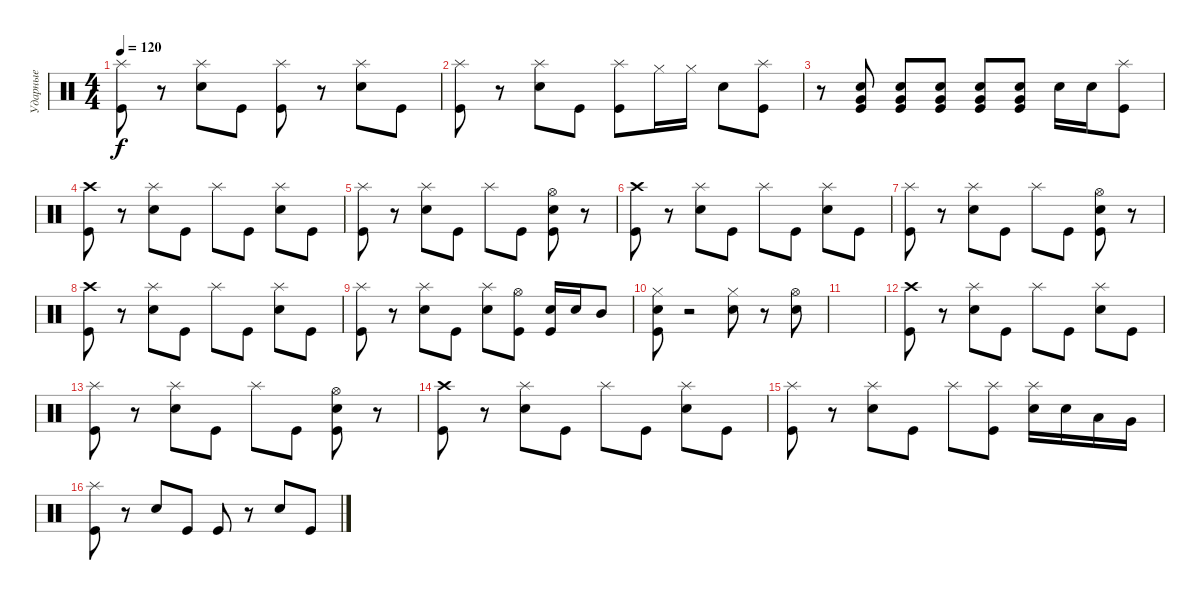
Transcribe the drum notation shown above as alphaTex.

\track ("Ударные" "Ударные") {instrument percussion}
\staff {score}
\articulation defaults
\ts (4 4)
\tempo 120
\clef neutral
\ks c
("Splash (hit)" "Kick (hit)").8{dy f} r.8 ("Splash (hit)" "Snare (hit) 2").8 "Kick (hit)".8 ("Splash (hit)" "Kick (hit)").8 r.8 ("Splash (hit)" "Snare (hit) 2").8 "Kick (hit)".8 |
("Splash (hit)" "Kick (hit)").8 r.8 ("Splash (hit)" "Snare (hit) 2").8 "Kick (hit)".8 ("Splash (hit)" "Kick (hit)").8 "Hi-Hat (closed)".16 "Hi-Hat (closed)".16 "Snare (hit) 2".8 ("Splash (hit)" "Kick (hit)").8 |
r.8 ("Snare (hit) 2" "Very Low Tom (hit)" "Kick (hit)").8 ("Snare (hit) 2" "Very Low Tom (hit)" "Kick (hit)").8 ("Snare (hit) 2" "Very Low Tom (hit)" "Kick (hit)").8 ("Snare (hit) 2" "Very Low Tom (hit)" "Kick (hit)").8 ("Snare (hit) 2" "Very Low Tom (hit)" "Kick (hit)").8 "Snare (hit) 2".16 "Snare (hit) 2".16 ("Splash (hit)" "Kick (hit)").8 |
("Crash high (hit)" "Kick (hit)").8 r.8 ("Splash (hit)" "Snare (hit) 2").8 "Kick (hit)".8 "Splash (hit)".8 "Kick (hit)".8 ("Splash (hit)" "Snare (hit) 2").8 "Kick (hit)".8 |
("Splash (hit)" "Kick (hit)").8 r.8 ("Splash (hit)" "Snare (hit) 2").8 "Kick (hit)".8 "Splash (hit)".8 "Kick (hit)".8 ("Hi-Hat (open)" "Snare (hit) 2" "Kick (hit)").8 r.8 |
("Crash high (hit)" "Kick (hit)").8 r.8 ("Splash (hit)" "Snare (hit) 2").8 "Kick (hit)".8 "Splash (hit)".8 "Kick (hit)".8 ("Splash (hit)" "Snare (hit) 2").8 "Kick (hit)".8 |
("Splash (hit)" "Kick (hit)").8 r.8 ("Splash (hit)" "Snare (hit) 2").8 "Kick (hit)".8 "Splash (hit)".8 "Kick (hit)".8 ("Hi-Hat (open)" "Snare (hit) 2" "Kick (hit)").8 r.8 |
("Crash high (hit)" "Kick (hit)").8 r.8 ("Splash (hit)" "Snare (hit) 2").8 "Kick (hit)".8 "Splash (hit)".8 "Kick (hit)".8 ("Splash (hit)" "Snare (hit) 2").8 "Kick (hit)".8 |
("Splash (hit)" "Kick (hit)").8 r.8 ("Splash (hit)" "Snare (hit) 2").8 "Kick (hit)".8 ("Splash (hit)" "Snare (hit) 2").8 ("Hi-Hat (open)" "Kick (hit)").8 ("Snare (hit) 2" "Kick (hit)").16 "Snare (hit) 2".16 "Mid Tom (hit)".8 |
("Hi-Hat (closed)" "Snare (hit) 2" "Kick (hit)").8 r.2 ("Hi-Hat (closed)" "Snare (hit) 2").8 r.8 ("Hi-Hat (open)" "Snare (hit) 2").8 |
|
("Crash high (hit)" "Kick (hit)").8 r.8 ("Splash (hit)" "Snare (hit) 2").8 "Kick (hit)".8 "Splash (hit)".8 "Kick (hit)".8 ("Splash (hit)" "Snare (hit) 2").8 "Kick (hit)".8 |
("Splash (hit)" "Kick (hit)").8 r.8 ("Splash (hit)" "Snare (hit) 2").8 "Kick (hit)".8 "Splash (hit)".8 "Kick (hit)".8 ("Hi-Hat (open)" "Snare (hit) 2" "Kick (hit)").8 r.8 |
("Crash high (hit)" "Kick (hit)").8 r.8 ("Splash (hit)" "Snare (hit) 2").8 "Kick (hit)".8 "Splash (hit)".8 "Kick (hit)".8 ("Splash (hit)" "Snare (hit) 2").8 "Kick (hit)".8 |
("Splash (hit)" "Kick (hit)").8 r.8 ("Splash (hit)" "Snare (hit) 2").8 "Kick (hit)".8 "Splash (hit)".8 ("Splash (hit)" "Kick (hit)").8 ("Splash (hit)" "Snare (hit) 2").16 "Snare (hit) 2".16 "Low Tom (hit)".16 "Very Low Tom (hit)".16 |
("Splash (hit)" "Kick (hit)").8 r.8 "Snare (hit) 2".8 "Kick (hit)".8 "Kick (hit)".8 r.8 "Snare (hit) 2".8 "Kick (hit)".8
